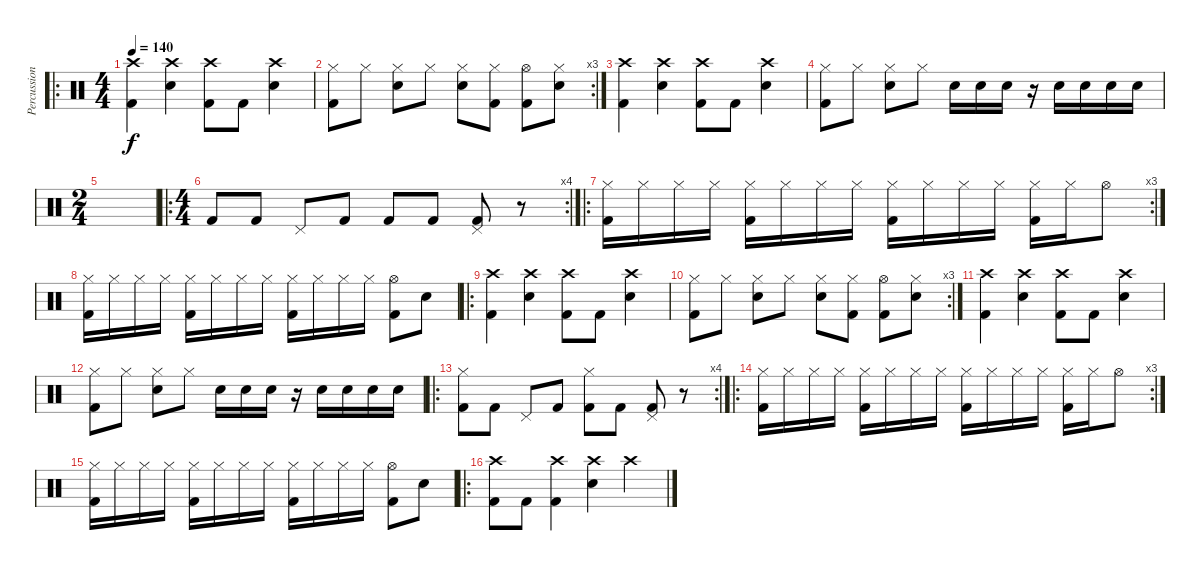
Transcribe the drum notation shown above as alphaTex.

\track ("Percussion" "Percussion") {instrument percussion}
\staff {score}
\articulation defaults
\ro
\ts (4 4)
\tempo 140
\clef neutral
\ks c
("Crash high (hit)" "Kick (hit) 2").4{dy f} ("Crash high (hit)" "Electric Snare (hit)").4 ("Crash high (hit)" "Kick (hit) 2").8 "Kick (hit) 2".8 ("Crash high (hit)" "Electric Snare (hit)").4 |
\rc 3
("Hi-Hat (closed)" "Kick (hit) 2").8 "Hi-Hat (closed)".8 ("Hi-Hat (closed)" "Electric Snare (hit)").8 "Hi-Hat (closed)".8 ("Hi-Hat (closed)" "Electric Snare (hit)").8 ("Hi-Hat (closed)" "Kick (hit) 2").8 ("Hi-Hat (open)" "Kick (hit) 2").8 ("Hi-Hat (closed)" "Electric Snare (hit)").8 |
("Crash high (hit)" "Kick (hit) 2").4 ("Crash high (hit)" "Electric Snare (hit)").4 ("Crash high (hit)" "Kick (hit) 2").8 "Kick (hit) 2".8 ("Crash high (hit)" "Electric Snare (hit)").4 |
("Hi-Hat (closed)" "Kick (hit) 2").8 "Hi-Hat (closed)".8 ("Hi-Hat (closed)" "Electric Snare (hit)").8 "Hi-Hat (closed)".8 "Electric Snare (hit)".16 "Electric Snare (hit)".16 "Electric Snare (hit)".16 r.16 "Electric Snare (hit)".16 "Electric Snare (hit)".16 "Electric Snare (hit)".16 "Electric Snare (hit)".16 |
\ts (2 4)
|
\ro
\rc 4
\ts (4 4)
"Kick (hit) 2".8 "Kick (hit) 2".8 "Pedal Hi-Hat (hit)".8 "Kick (hit) 2".8 "Kick (hit) 2".8 "Kick (hit) 2".8 ("Pedal Hi-Hat (hit)" "Kick (hit) 2").8 r.8 |
\ro
\rc 3
("Hi-Hat (closed)" "Kick (hit) 2").16 "Hi-Hat (closed)".16 "Hi-Hat (closed)".16 "Hi-Hat (closed)".16 ("Hi-Hat (closed)" "Kick (hit) 2").16 "Hi-Hat (closed)".16 "Hi-Hat (closed)".16 "Hi-Hat (closed)".16 ("Hi-Hat (closed)" "Kick (hit) 2").16 "Hi-Hat (closed)".16 "Hi-Hat (closed)".16 "Hi-Hat (closed)".16 ("Hi-Hat (closed)" "Kick (hit) 2").16 "Hi-Hat (closed)".16 "Hi-Hat (open)".8 |
("Hi-Hat (closed)" "Kick (hit) 2").16 "Hi-Hat (closed)".16 "Hi-Hat (closed)".16 "Hi-Hat (closed)".16 ("Hi-Hat (closed)" "Kick (hit) 2").16 "Hi-Hat (closed)".16 "Hi-Hat (closed)".16 "Hi-Hat (closed)".16 ("Hi-Hat (closed)" "Kick (hit) 2").16 "Hi-Hat (closed)".16 "Hi-Hat (closed)".16 "Hi-Hat (closed)".16 ("Hi-Hat (open)" "Kick (hit) 2").8 "Electric Snare (hit)".8 |
\ro
("Crash high (hit)" "Kick (hit) 2").4 ("Crash high (hit)" "Electric Snare (hit)").4 ("Crash high (hit)" "Kick (hit) 2").8 "Kick (hit) 2".8 ("Crash high (hit)" "Electric Snare (hit)").4 |
\rc 3
("Hi-Hat (closed)" "Kick (hit) 2").8 "Hi-Hat (closed)".8 ("Hi-Hat (closed)" "Electric Snare (hit)").8 "Hi-Hat (closed)".8 ("Hi-Hat (closed)" "Electric Snare (hit)").8 ("Hi-Hat (closed)" "Kick (hit) 2").8 ("Hi-Hat (open)" "Kick (hit) 2").8 ("Hi-Hat (closed)" "Electric Snare (hit)").8 |
("Crash high (hit)" "Kick (hit) 2").4 ("Crash high (hit)" "Electric Snare (hit)").4 ("Crash high (hit)" "Kick (hit) 2").8 "Kick (hit) 2".8 ("Crash high (hit)" "Electric Snare (hit)").4 |
("Hi-Hat (closed)" "Kick (hit) 2").8 "Hi-Hat (closed)".8 ("Hi-Hat (closed)" "Electric Snare (hit)").8 "Hi-Hat (closed)".8 "Electric Snare (hit)".16 "Electric Snare (hit)".16 "Electric Snare (hit)".16 r.16 "Electric Snare (hit)".16 "Electric Snare (hit)".16 "Electric Snare (hit)".16 "Electric Snare (hit)".16 |
\ro
\rc 4
("Hi-Hat (closed)" "Kick (hit) 2").8 "Kick (hit) 2".8 "Pedal Hi-Hat (hit)".8 "Kick (hit) 2".8 ("Hi-Hat (closed)" "Kick (hit) 2").8 "Kick (hit) 2".8 ("Pedal Hi-Hat (hit)" "Kick (hit) 2").8 r.8 |
\ro
\rc 3
("Hi-Hat (closed)" "Kick (hit) 2").16 "Hi-Hat (closed)".16 "Hi-Hat (closed)".16 "Hi-Hat (closed)".16 ("Hi-Hat (closed)" "Kick (hit) 2").16 "Hi-Hat (closed)".16 "Hi-Hat (closed)".16 "Hi-Hat (closed)".16 ("Hi-Hat (closed)" "Kick (hit) 2").16 "Hi-Hat (closed)".16 "Hi-Hat (closed)".16 "Hi-Hat (closed)".16 ("Hi-Hat (closed)" "Kick (hit) 2").16 "Hi-Hat (closed)".16 "Hi-Hat (open)".8 |
("Hi-Hat (closed)" "Kick (hit) 2").16 "Hi-Hat (closed)".16 "Hi-Hat (closed)".16 "Hi-Hat (closed)".16 ("Hi-Hat (closed)" "Kick (hit) 2").16 "Hi-Hat (closed)".16 "Hi-Hat (closed)".16 "Hi-Hat (closed)".16 ("Hi-Hat (closed)" "Kick (hit) 2").16 "Hi-Hat (closed)".16 "Hi-Hat (closed)".16 "Hi-Hat (closed)".16 ("Hi-Hat (open)" "Kick (hit) 2").8 "Electric Snare (hit)".8 |
\ro
("Crash high (hit)" "Kick (hit) 2").8 "Kick (hit) 2".8 ("Crash high (hit)" "Kick (hit) 2").4 ("Crash high (hit)" "Electric Snare (hit)").4 "Crash high (hit)".4
